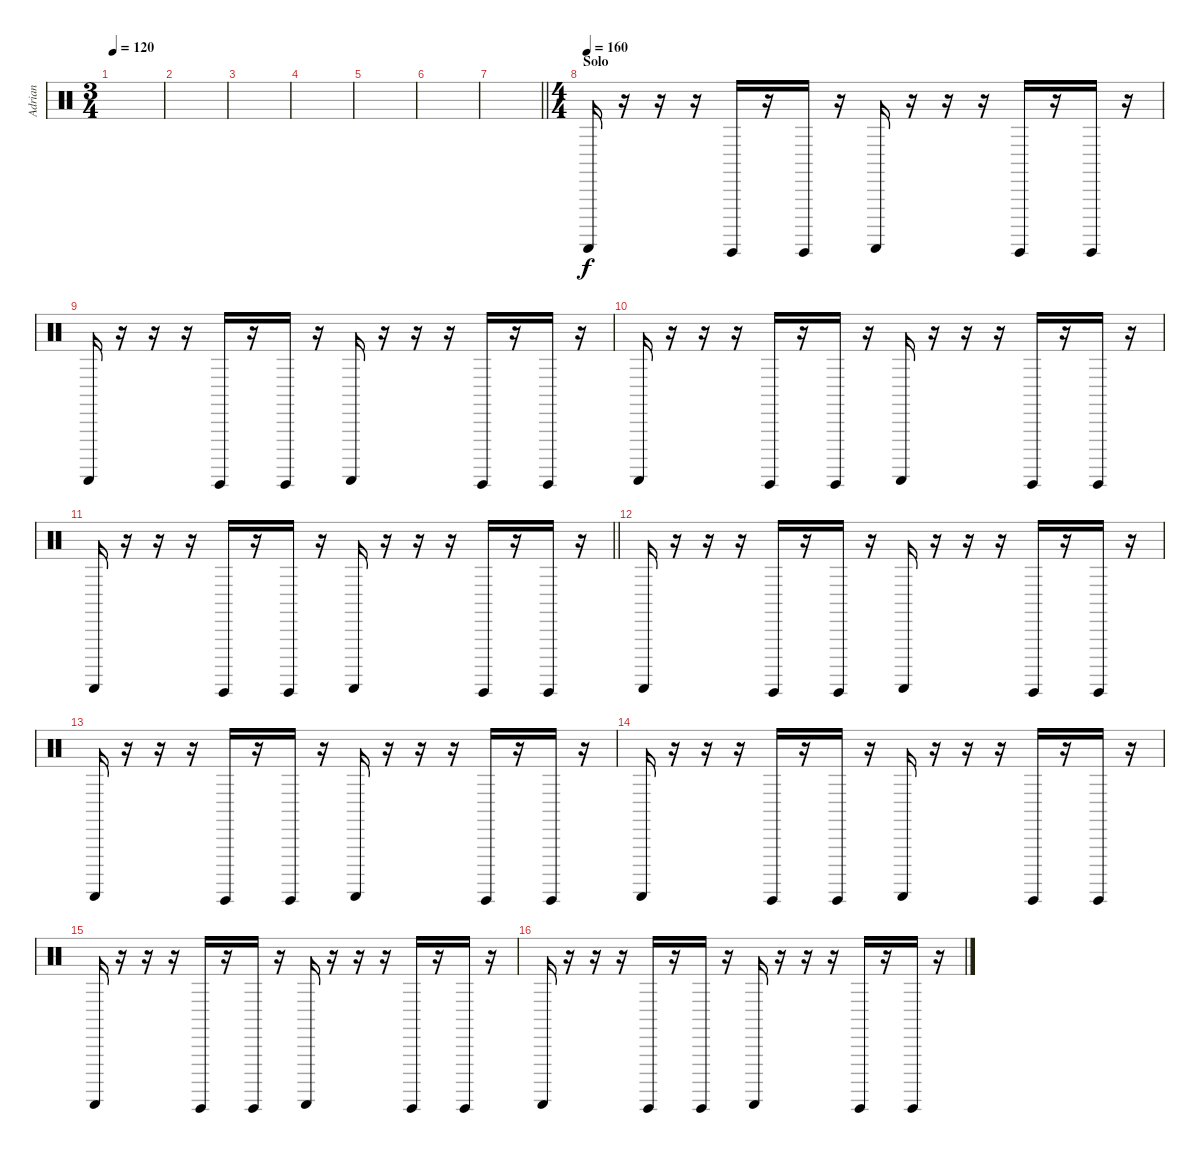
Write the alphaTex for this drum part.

\track ("Adrian" "Adrian") {instrument percussion}
\staff {score}
\articulation defaults
\ts (3 4)
\tempo 120
\clef neutral
\ks c
|
|
|
|
|
|
\barLineRight lightlight
|
\ts (4 4)
\section ("" "Solo")
\tempo (160)
"Guiro (scrap-return)".16 r.16 r.16 r.16 "Guiro (hit)".16 r.16 "Guiro (hit)".16 r.16 "Guiro (scrap-return)".16 r.16 r.16 r.16 "Guiro (hit)".16 r.16 "Guiro (hit)".16 r.16 |
"Guiro (scrap-return)".16 r.16 r.16 r.16 "Guiro (hit)".16 r.16 "Guiro (hit)".16 r.16 "Guiro (scrap-return)".16 r.16 r.16 r.16 "Guiro (hit)".16 r.16 "Guiro (hit)".16 r.16 |
"Guiro (scrap-return)".16 r.16 r.16 r.16 "Guiro (hit)".16 r.16 "Guiro (hit)".16 r.16 "Guiro (scrap-return)".16 r.16 r.16 r.16 "Guiro (hit)".16 r.16 "Guiro (hit)".16 r.16 |
\barLineRight lightlight "Guiro (scrap-return)".16
r.16 r.16 r.16 "Guiro (hit)".16 r.16 "Guiro (hit)".16 r.16 "Guiro (scrap-return)".16 r.16 r.16 r.16 "Guiro (hit)".16 r.16 "Guiro (hit)".16 r.16 |
"Guiro (scrap-return)".16 r.16 r.16 r.16 "Guiro (hit)".16 r.16 "Guiro (hit)".16 r.16 "Guiro (scrap-return)".16 r.16 r.16 r.16 "Guiro (hit)".16 r.16 "Guiro (hit)".16 r.16 |
"Guiro (scrap-return)".16 r.16 r.16 r.16 "Guiro (hit)".16 r.16 "Guiro (hit)".16 r.16 "Guiro (scrap-return)".16 r.16 r.16 r.16 "Guiro (hit)".16 r.16 "Guiro (hit)".16 r.16 |
"Guiro (scrap-return)".16 r.16 r.16 r.16 "Guiro (hit)".16 r.16 "Guiro (hit)".16 r.16 "Guiro (scrap-return)".16 r.16 r.16 r.16 "Guiro (hit)".16 r.16 "Guiro (hit)".16 r.16 |
"Guiro (scrap-return)".16 r.16 r.16 r.16 "Guiro (hit)".16 r.16 "Guiro (hit)".16 r.16 "Guiro (scrap-return)".16 r.16 r.16 r.16 "Guiro (hit)".16 r.16 "Guiro (hit)".16 r.16 |
"Guiro (scrap-return)".16 r.16 r.16 r.16 "Guiro (hit)".16 r.16 "Guiro (hit)".16 r.16 "Guiro (scrap-return)".16 r.16 r.16 r.16 "Guiro (hit)".16 r.16 "Guiro (hit)".16 r.16
